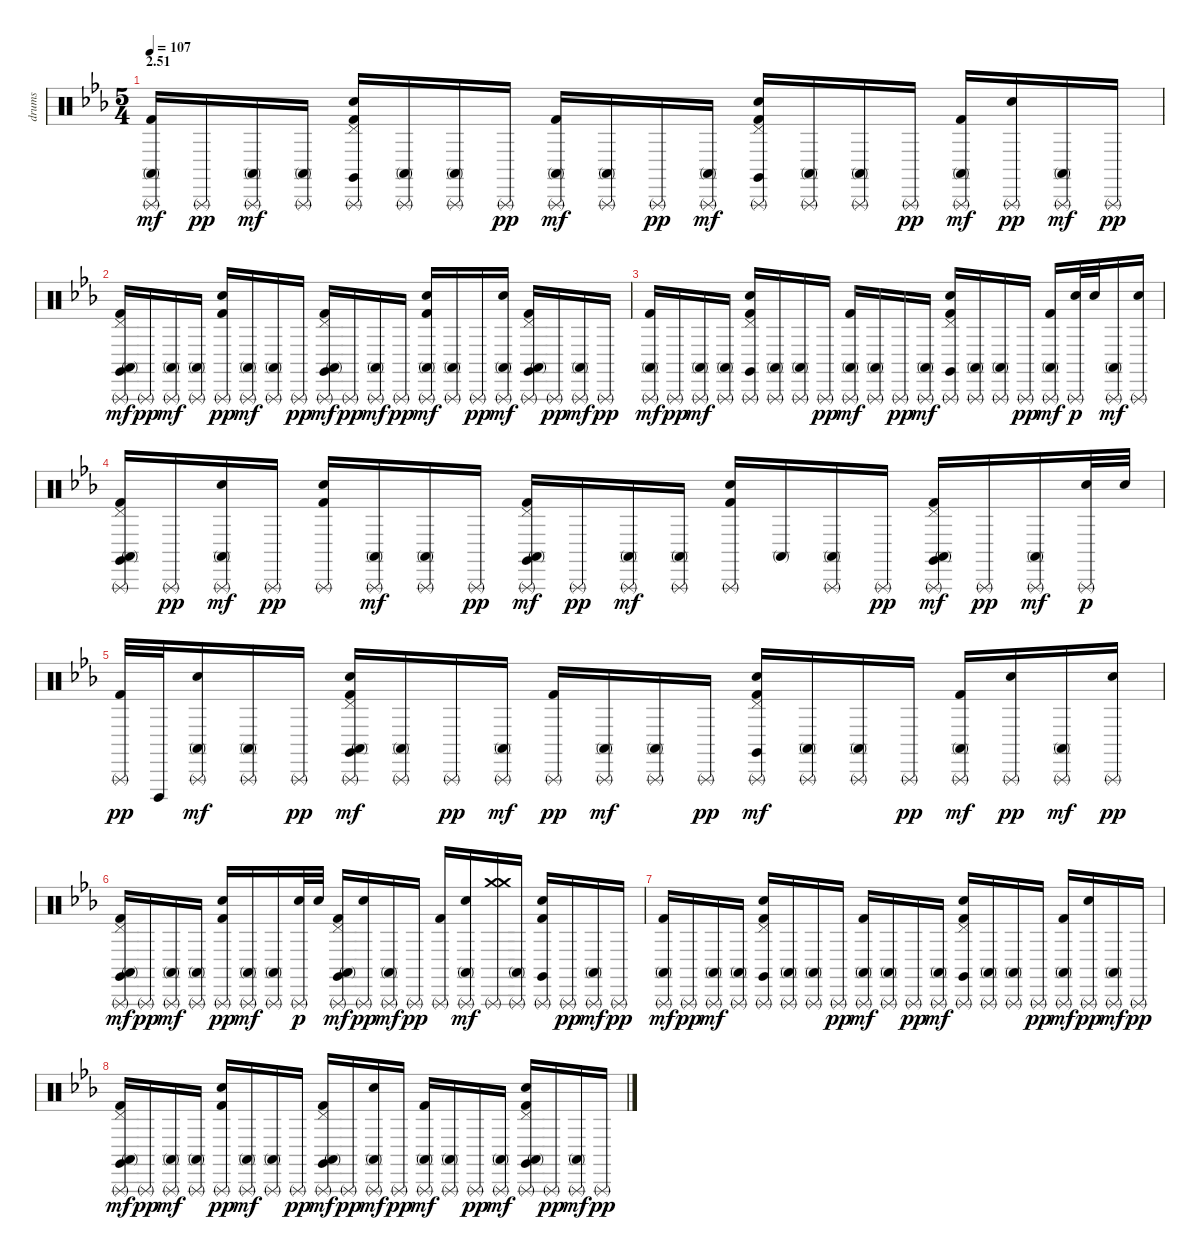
\track ("drums" "drums") {instrument percussion}
\staff {score}
\articulation defaults
\ts (5 4)
\section ("" "2.51")
\tempo 107
\clef neutral
\ks eb
("Triangle (rnute)" "Conga high (mute)" "Kick (hit) 2").16{dy mf} "Triangle (rnute)".16{dy pp} ("Triangle (rnute)" "Conga high (mute)").16{dy mf} ("Triangle (rnute)" "Conga high (mute)").16 ("Triangle (rnute)" "Claves (hit)" "Pedal Hi-Hat (hit)" "Electric Snare (hit)" "Kick (hit) 2").16 ("Triangle (rnute)" "Conga high (mute)").16 ("Triangle (rnute)" "Conga high (mute)").16 "Triangle (rnute)".16{dy pp} ("Triangle (rnute)" "Conga high (mute)" "Kick (hit) 2").16{dy mf} ("Triangle (rnute)" "Conga high (mute)").16 "Triangle (rnute)".16{dy pp} ("Triangle (rnute)" "Conga high (mute)").16{dy mf} ("Triangle (rnute)" "Claves (hit)" "Pedal Hi-Hat (hit)" "Electric Snare (hit)" "Kick (hit) 2").16 ("Triangle (rnute)" "Conga high (mute)").16 ("Triangle (rnute)" "Conga high (mute)").16 "Triangle (rnute)".16{dy pp} ("Triangle (rnute)" "Conga high (mute)" "Kick (hit) 2").16{dy mf} ("Triangle (rnute)" "Electric Snare (hit)").16{dy pp} ("Triangle (rnute)" "Conga high (mute)").16{dy mf} "Triangle (rnute)".16{dy pp} |
("Triangle (rnute)" "Claves (hit)" "Conga high (mute)" "Pedal Hi-Hat (hit)" "Kick (hit) 2").16{dy mf} "Triangle (rnute)".16{dy pp} ("Triangle (rnute)" "Conga high (mute)").16{dy mf} ("Triangle (rnute)" "Conga high (mute)").16 ("Triangle (rnute)" "Electric Snare (hit)" "Kick (hit) 2").16{dy pp} ("Triangle (rnute)" "Conga high (mute)").16{dy mf} ("Triangle (rnute)" "Conga high (mute)").16 "Triangle (rnute)".16{dy pp} ("Triangle (rnute)" "Claves (hit)" "Conga high (mute)" "Pedal Hi-Hat (hit)" "Kick (hit) 2").16{dy mf} "Triangle (rnute)".16{dy pp} ("Triangle (rnute)" "Conga high (mute)").16{dy mf} "Triangle (rnute)".16{dy pp} ("Triangle (rnute)" "Conga high (mute)" "Electric Snare (hit)" "Kick (hit) 2").16{dy mf} ("Triangle (rnute)" "Conga high (mute)").16 "Triangle (rnute)".16{dy pp} ("Triangle (rnute)" "Conga high (mute)" "Electric Snare (hit)").16{dy mf} ("Triangle (rnute)" "Claves (hit)" "Conga high (mute)" "Pedal Hi-Hat (hit)" "Kick (hit) 2").16 "Triangle (rnute)".16{dy pp} ("Triangle (rnute)" "Conga high (mute)").16{dy mf} "Triangle (rnute)".16{dy pp} |
("Triangle (rnute)" "Conga high (mute)" "Kick (hit) 2").16{dy mf} "Triangle (rnute)".16{dy pp} ("Triangle (rnute)" "Conga high (mute)").16{dy mf} ("Triangle (rnute)" "Conga high (mute)").16 ("Triangle (rnute)" "Claves (hit)" "Pedal Hi-Hat (hit)" "Electric Snare (hit)" "Kick (hit) 2").16 ("Triangle (rnute)" "Conga high (mute)").16 ("Triangle (rnute)" "Conga high (mute)").16 "Triangle (rnute)".16{dy pp} ("Triangle (rnute)" "Conga high (mute)" "Kick (hit) 2").16{dy mf} ("Triangle (rnute)" "Conga high (mute)").16 "Triangle (rnute)".16{dy pp} ("Triangle (rnute)" "Conga high (mute)").16{dy mf} ("Triangle (rnute)" "Claves (hit)" "Pedal Hi-Hat (hit)" "Electric Snare (hit)" "Kick (hit) 2").16 ("Triangle (rnute)" "Conga high (mute)").16 ("Triangle (rnute)" "Conga high (mute)").16 "Triangle (rnute)".16{dy pp} ("Triangle (rnute)" "Conga high (mute)" "Kick (hit) 2").16{dy mf} ("Triangle (rnute)" "Electric Snare (hit)").32{dy p} "Electric Snare (hit)".32 ("Triangle (rnute)" "Conga high (mute)").16{dy mf} ("Triangle (rnute)" "Electric Snare (hit)").16 |
("Triangle (rnute)" "Claves (hit)" "Conga high (mute)" "Pedal Hi-Hat (hit)" "Kick (hit) 2").16 "Triangle (rnute)".16{dy pp} ("Triangle (rnute)" "Conga high (mute)" "Electric Snare (hit)").16{dy mf} "Triangle (rnute)".16{dy pp} ("Triangle (rnute)" "Electric Snare (hit)" "Kick (hit) 2").16 ("Triangle (rnute)" "Conga high (mute)").16{dy mf} ("Triangle (rnute)" "Conga high (mute)").16 "Triangle (rnute)".16{dy pp} ("Triangle (rnute)" "Claves (hit)" "Conga high (mute)" "Pedal Hi-Hat (hit)" "Kick (hit) 2").16{dy mf} "Triangle (rnute)".16{dy pp} ("Triangle (rnute)" "Conga high (mute)").16{dy mf} ("Triangle (rnute)" "Conga high (mute)").16 ("Triangle (rnute)" "Electric Snare (hit)" "Kick (hit) 2").16 "Conga high (mute)".16 ("Triangle (rnute)" "Conga high (mute)").16 "Triangle (rnute)".16{dy pp} ("Triangle (rnute)" "Claves (hit)" "Conga high (mute)" "Pedal Hi-Hat (hit)" "Kick (hit) 2").16{dy mf} "Triangle (rnute)".16{dy pp} ("Triangle (rnute)" "Conga high (mute)").16{dy mf} ("Triangle (rnute)" "Electric Snare (hit)").32{dy p} "Electric Snare (hit)".32 |
("Triangle (rnute)" "Kick (hit) 2").32{dy pp} "Cuica (open)".32 ("Triangle (rnute)" "Conga high (mute)" "Electric Snare (hit)").16{dy mf} ("Triangle (rnute)" "Conga high (mute)").16 "Triangle (rnute)".16{dy pp} ("Triangle (rnute)" "Claves (hit)" "Conga high (mute)" "Pedal Hi-Hat (hit)" "Electric Snare (hit)" "Kick (hit) 2").16{dy mf} ("Triangle (rnute)" "Conga high (mute)").16 "Triangle (rnute)".16{dy pp} ("Triangle (rnute)" "Conga high (mute)").16{dy mf} ("Triangle (rnute)" "Kick (hit) 2").16{dy pp} ("Triangle (rnute)" "Conga high (mute)").16{dy mf} ("Triangle (rnute)" "Conga high (mute)").16 "Triangle (rnute)".16{dy pp} ("Triangle (rnute)" "Claves (hit)" "Pedal Hi-Hat (hit)" "Electric Snare (hit)" "Kick (hit) 2").16{dy mf} ("Triangle (rnute)" "Conga high (mute)").16 ("Triangle (rnute)" "Conga high (mute)").16 "Triangle (rnute)".16{dy pp} ("Triangle (rnute)" "Conga high (mute)" "Kick (hit) 2").16{dy mf} ("Triangle (rnute)" "Electric Snare (hit)").16{dy pp} ("Triangle (rnute)" "Conga high (mute)").16{dy mf} ("Triangle (rnute)" "Electric Snare (hit)").16{dy pp} |
("Triangle (rnute)" "Claves (hit)" "Conga high (mute)" "Pedal Hi-Hat (hit)" "Kick (hit) 2").16{dy mf} "Triangle (rnute)".16{dy pp} ("Triangle (rnute)" "Conga high (mute)").16{dy mf} ("Triangle (rnute)" "Conga high (mute)").16 ("Triangle (rnute)" "Electric Snare (hit)" "Kick (hit) 2").16{dy pp} ("Triangle (rnute)" "Conga high (mute)").16{dy mf} ("Triangle (rnute)" "Conga high (mute)").16 ("Triangle (rnute)" "Electric Snare (hit)").32{dy p} "Electric Snare (hit)".32 ("Triangle (rnute)" "Claves (hit)" "Conga high (mute)" "Pedal Hi-Hat (hit)" "Kick (hit) 2").16{dy mf} ("Triangle (rnute)" "Electric Snare (hit)").16{dy pp} ("Triangle (rnute)" "Conga high (mute)").16{dy mf} "Triangle (rnute)".16{dy pp} ("Triangle (rnute)" "Kick (hit) 2").16 ("Triangle (rnute)" "Conga high (mute)" "Electric Snare (hit)").16{dy mf} ("Triangle (rnute)" "Crash medium (hit)" "Crash medium (hit)").16 ("Triangle (rnute)" "Conga high (mute)").16 ("Triangle (rnute)" "Claves (hit)" "Electric Snare (hit)" "Kick (hit) 2").16 "Triangle (rnute)".16{dy pp} ("Triangle (rnute)" "Conga high (mute)").16{dy mf} "Triangle (rnute)".16{dy pp} |
("Triangle (rnute)" "Conga high (mute)" "Kick (hit) 2").16{dy mf} "Triangle (rnute)".16{dy pp} ("Triangle (rnute)" "Conga high (mute)").16{dy mf} ("Triangle (rnute)" "Conga high (mute)").16 ("Triangle (rnute)" "Claves (hit)" "Pedal Hi-Hat (hit)" "Electric Snare (hit)" "Kick (hit) 2").16 ("Triangle (rnute)" "Conga high (mute)").16 ("Triangle (rnute)" "Conga high (mute)").16 "Triangle (rnute)".16{dy pp} ("Triangle (rnute)" "Conga high (mute)" "Kick (hit) 2").16{dy mf} ("Triangle (rnute)" "Conga high (mute)").16 "Triangle (rnute)".16{dy pp} ("Triangle (rnute)" "Conga high (mute)").16{dy mf} ("Triangle (rnute)" "Claves (hit)" "Pedal Hi-Hat (hit)" "Electric Snare (hit)" "Kick (hit) 2").16 ("Triangle (rnute)" "Conga high (mute)").16 ("Triangle (rnute)" "Conga high (mute)").16 "Triangle (rnute)".16{dy pp} ("Triangle (rnute)" "Conga high (mute)" "Kick (hit) 2").16{dy mf} ("Triangle (rnute)" "Electric Snare (hit)").16{dy pp} ("Triangle (rnute)" "Conga high (mute)").16{dy mf} "Triangle (rnute)".16{dy pp} |
("Triangle (rnute)" "Claves (hit)" "Conga high (mute)" "Pedal Hi-Hat (hit)" "Kick (hit) 2").16{dy mf} "Triangle (rnute)".16{dy pp} ("Triangle (rnute)" "Conga high (mute)").16{dy mf} ("Triangle (rnute)" "Conga high (mute)").16 ("Triangle (rnute)" "Electric Snare (hit)" "Kick (hit) 2").16{dy pp} ("Triangle (rnute)" "Conga high (mute)").16{dy mf} ("Triangle (rnute)" "Conga high (mute)").16 "Triangle (rnute)".16{dy pp} ("Triangle (rnute)" "Claves (hit)" "Conga high (mute)" "Pedal Hi-Hat (hit)" "Kick (hit) 2").16{dy mf} "Triangle (rnute)".16{dy pp} ("Triangle (rnute)" "Conga high (mute)" "Electric Snare (hit)").16{dy mf} "Triangle (rnute)".16{dy pp} ("Triangle (rnute)" "Conga high (mute)" "Kick (hit) 2").16{dy mf} ("Triangle (rnute)" "Conga high (mute)").16 "Triangle (rnute)".16{dy pp} ("Triangle (rnute)" "Conga high (mute)").16{dy mf} ("Triangle (rnute)" "Claves (hit)" "Conga high (mute)" "Pedal Hi-Hat (hit)" "Electric Snare (hit)" "Kick (hit) 2").16 "Triangle (rnute)".16{dy pp} ("Triangle (rnute)" "Conga high (mute)").16{dy mf} "Triangle (rnute)".16{dy pp}
